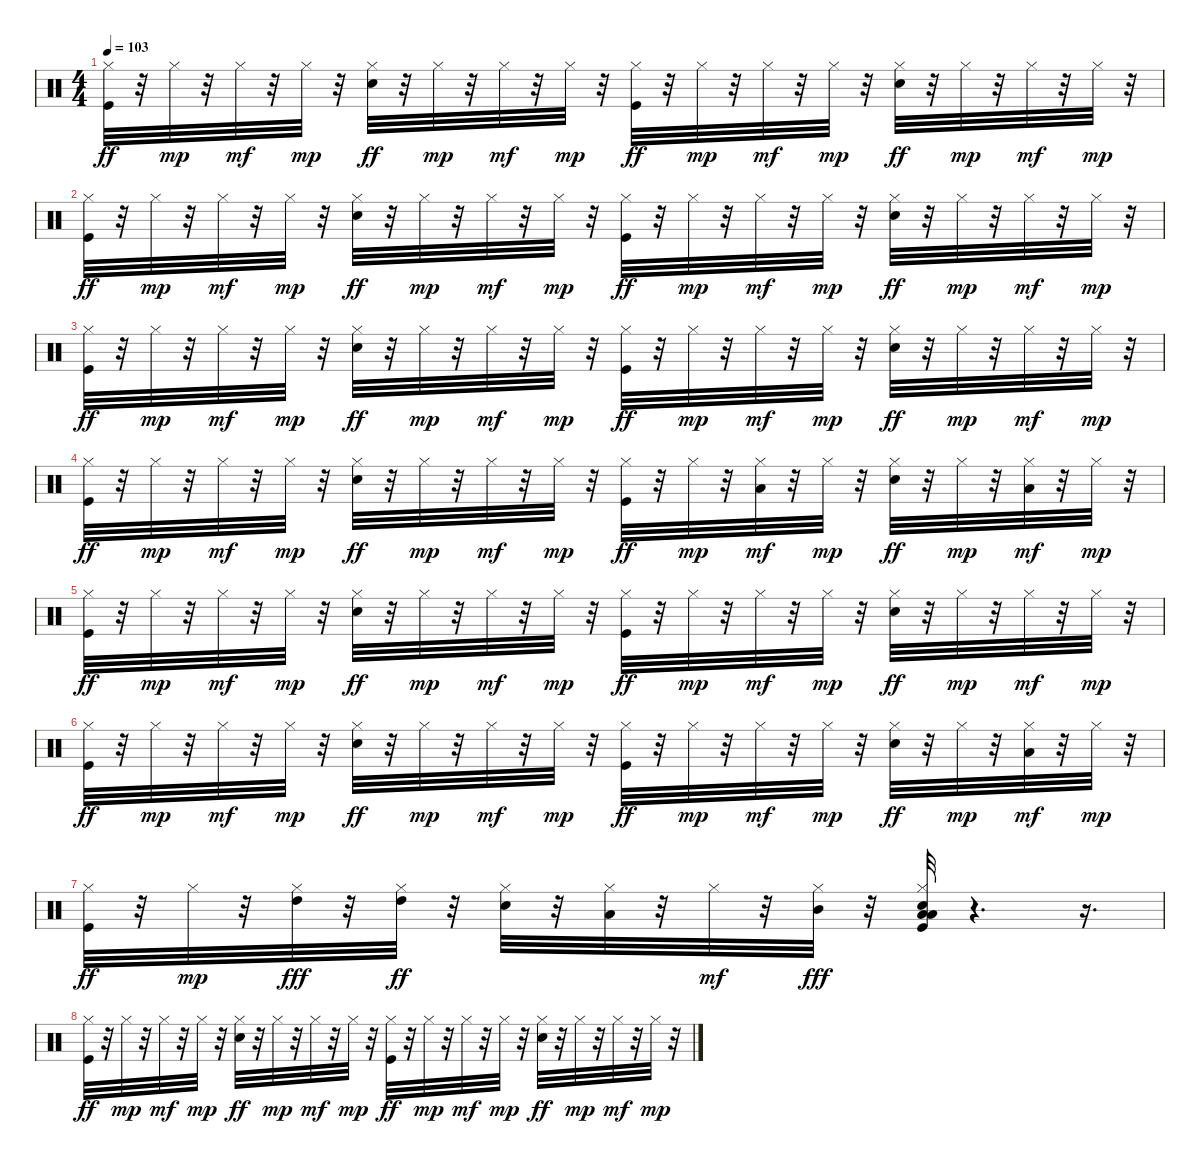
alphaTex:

\track "" {instrument percussion}
\staff {score}
\articulation defaults
\ts (4 4)
\tempo 103
\clef neutral
\ks c
("Kick (hit)" "Hi-Hat (closed)").32{dy ff} r.32 "Hi-Hat (closed)".32{dy mp} r.32 "Hi-Hat (closed)".32{dy mf} r.32 "Hi-Hat (closed)".32{dy mp} r.32 ("Snare (hit) 2" "Hi-Hat (closed)").32{dy ff} r.32 "Hi-Hat (closed)".32{dy mp} r.32 "Hi-Hat (closed)".32{dy mf} r.32 "Hi-Hat (closed)".32{dy mp} r.32 ("Kick (hit)" "Hi-Hat (closed)").32{dy ff} r.32 "Hi-Hat (closed)".32{dy mp} r.32 "Hi-Hat (closed)".32{dy mf} r.32 "Hi-Hat (closed)".32{dy mp} r.32 ("Snare (hit) 2" "Hi-Hat (closed)").32{dy ff} r.32 "Hi-Hat (closed)".32{dy mp} r.32 "Hi-Hat (closed)".32{dy mf} r.32 "Hi-Hat (closed)".32{dy mp} r.32 |
("Kick (hit)" "Hi-Hat (closed)").32{dy ff} r.32 "Hi-Hat (closed)".32{dy mp} r.32 "Hi-Hat (closed)".32{dy mf} r.32 "Hi-Hat (closed)".32{dy mp} r.32 ("Snare (hit) 2" "Hi-Hat (closed)").32{dy ff} r.32 "Hi-Hat (closed)".32{dy mp} r.32 "Hi-Hat (closed)".32{dy mf} r.32 "Hi-Hat (closed)".32{dy mp} r.32 ("Kick (hit)" "Hi-Hat (closed)").32{dy ff} r.32 "Hi-Hat (closed)".32{dy mp} r.32 "Hi-Hat (closed)".32{dy mf} r.32 "Hi-Hat (closed)".32{dy mp} r.32 ("Snare (hit) 2" "Hi-Hat (closed)").32{dy ff} r.32 "Hi-Hat (closed)".32{dy mp} r.32 "Hi-Hat (closed)".32{dy mf} r.32 "Hi-Hat (closed)".32{dy mp} r.32 |
("Kick (hit)" "Hi-Hat (closed)").32{dy ff} r.32 "Hi-Hat (closed)".32{dy mp} r.32 "Hi-Hat (closed)".32{dy mf} r.32 "Hi-Hat (closed)".32{dy mp} r.32 ("Snare (hit) 2" "Hi-Hat (closed)").32{dy ff} r.32 "Hi-Hat (closed)".32{dy mp} r.32 "Hi-Hat (closed)".32{dy mf} r.32 "Hi-Hat (closed)".32{dy mp} r.32 ("Kick (hit)" "Hi-Hat (closed)").32{dy ff} r.32 "Hi-Hat (closed)".32{dy mp} r.32 "Hi-Hat (closed)".32{dy mf} r.32 "Hi-Hat (closed)".32{dy mp} r.32 ("Snare (hit) 2" "Hi-Hat (closed)").32{dy ff} r.32 "Hi-Hat (closed)".32{dy mp} r.32 "Hi-Hat (closed)".32{dy mf} r.32 "Hi-Hat (closed)".32{dy mp} r.32 |
("Kick (hit)" "Hi-Hat (closed)").32{dy ff} r.32 "Hi-Hat (closed)".32{dy mp} r.32 "Hi-Hat (closed)".32{dy mf} r.32 "Hi-Hat (closed)".32{dy mp} r.32 ("Snare (hit) 2" "Hi-Hat (closed)").32{dy ff} r.32 "Hi-Hat (closed)".32{dy mp} r.32 "Hi-Hat (closed)".32{dy mf} r.32 "Hi-Hat (closed)".32{dy mp} r.32 ("Kick (hit)" "Hi-Hat (closed)").32{dy ff} r.32 "Hi-Hat (closed)".32{dy mp} r.32 ("Hi-Hat (closed)" "Low Floor Tom (hit)").32{dy mf} r.32 "Hi-Hat (closed)".32{dy mp} r.32 ("Snare (hit) 2" "Hi-Hat (closed)").32{dy ff} r.32 "Hi-Hat (closed)".32{dy mp} r.32 ("Hi-Hat (closed)" "Low Floor Tom (hit)").32{dy mf} r.32 "Hi-Hat (closed)".32{dy mp} r.32 |
("Kick (hit)" "Hi-Hat (closed)").32{dy ff} r.32 "Hi-Hat (closed)".32{dy mp} r.32 "Hi-Hat (closed)".32{dy mf} r.32 "Hi-Hat (closed)".32{dy mp} r.32 ("Snare (hit) 2" "Hi-Hat (closed)").32{dy ff} r.32 "Hi-Hat (closed)".32{dy mp} r.32 "Hi-Hat (closed)".32{dy mf} r.32 "Hi-Hat (closed)".32{dy mp} r.32 ("Kick (hit)" "Hi-Hat (closed)").32{dy ff} r.32 "Hi-Hat (closed)".32{dy mp} r.32 "Hi-Hat (closed)".32{dy mf} r.32 "Hi-Hat (closed)".32{dy mp} r.32 ("Snare (hit) 2" "Hi-Hat (closed)").32{dy ff} r.32 "Hi-Hat (closed)".32{dy mp} r.32 "Hi-Hat (closed)".32{dy mf} r.32 "Hi-Hat (closed)".32{dy mp} r.32 |
("Kick (hit)" "Hi-Hat (closed)").32{dy ff} r.32 "Hi-Hat (closed)".32{dy mp} r.32 "Hi-Hat (closed)".32{dy mf} r.32 "Hi-Hat (closed)".32{dy mp} r.32 ("Snare (hit) 2" "Hi-Hat (closed)").32{dy ff} r.32 "Hi-Hat (closed)".32{dy mp} r.32 "Hi-Hat (closed)".32{dy mf} r.32 "Hi-Hat (closed)".32{dy mp} r.32 ("Kick (hit)" "Hi-Hat (closed)").32{dy ff} r.32 "Hi-Hat (closed)".32{dy mp} r.32 "Hi-Hat (closed)".32{dy mf} r.32 "Hi-Hat (closed)".32{dy mp} r.32 ("Snare (hit) 2" "Hi-Hat (closed)").32{dy ff} r.32 "Hi-Hat (closed)".32{dy mp} r.32 ("Hi-Hat (closed)" "Low Floor Tom (hit)").32{dy mf} r.32 "Hi-Hat (closed)".32{dy mp} r.32 |
("Kick (hit)" "Hi-Hat (closed)").32{dy ff} r.32 "Hi-Hat (closed)".32{dy mp} r.32 ("Hi-Hat (closed)" "High Tom (hit)").32{dy fff} r.32 ("Hi-Hat (closed)" "High Tom (hit)").32{dy ff} r.32 ("Snare (hit) 2" "Hi-Hat (closed)").32 r.32 ("Hi-Hat (closed)" "Low Tom (hit)").32 r.32 "Hi-Hat (closed)".32{dy mf} r.32 ("Hi-Hat (closed)" "Mid Tom (hit)").32{dy fff} r.32 ("Kick (hit)" "Snare (hit) 2" "Hi-Hat (closed)" "Low Tom (hit)" "Low Floor Tom (hit)").32 r.4{d} r.16{d} |
("Kick (hit)" "Hi-Hat (closed)").32{dy ff} r.32 "Hi-Hat (closed)".32{dy mp} r.32 "Hi-Hat (closed)".32{dy mf} r.32 "Hi-Hat (closed)".32{dy mp} r.32 ("Snare (hit) 2" "Hi-Hat (closed)").32{dy ff} r.32 "Hi-Hat (closed)".32{dy mp} r.32 "Hi-Hat (closed)".32{dy mf} r.32 "Hi-Hat (closed)".32{dy mp} r.32 ("Kick (hit)" "Hi-Hat (closed)").32{dy ff} r.32 "Hi-Hat (closed)".32{dy mp} r.32 "Hi-Hat (closed)".32{dy mf} r.32 "Hi-Hat (closed)".32{dy mp} r.32 ("Snare (hit) 2" "Hi-Hat (closed)").32{dy ff} r.32 "Hi-Hat (closed)".32{dy mp} r.32 "Hi-Hat (closed)".32{dy mf} r.32 "Hi-Hat (closed)".32{dy mp} r.32
